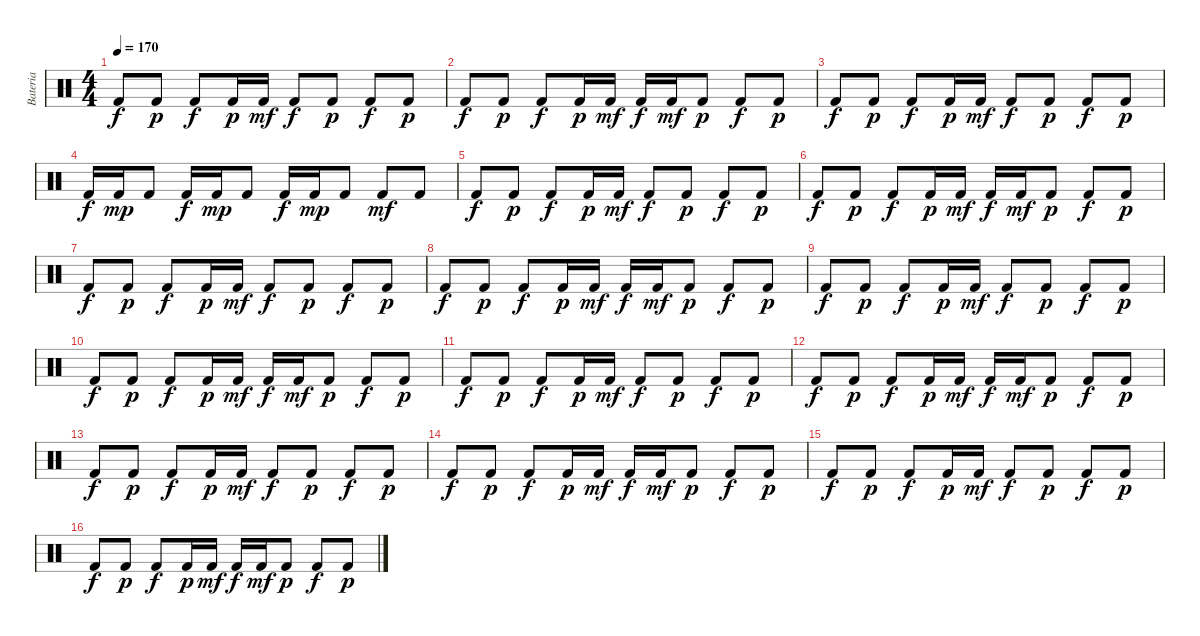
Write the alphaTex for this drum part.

\track ("Bateria" "Bateria") {instrument percussion}
\staff {score}
\articulation defaults
\ts (4 4)
\tempo 170
\clef neutral
\ks c "Kick (hit) 2".8{dy f} "Kick (hit) 2".8{dy p} "Kick (hit) 2".8{dy f} "Kick (hit) 2".16{dy p} "Kick (hit) 2".16{dy mf} "Kick (hit) 2".8{dy f} "Kick (hit) 2".8{dy p} "Kick (hit) 2".8{dy f} "Kick (hit) 2".8{dy p}
|
"Kick (hit) 2".8{dy f} "Kick (hit) 2".8{dy p} "Kick (hit) 2".8{dy f} "Kick (hit) 2".16{dy p} "Kick (hit) 2".16{dy mf} "Kick (hit) 2".16{dy f} "Kick (hit) 2".16{dy mf} "Kick (hit) 2".8{dy p} "Kick (hit) 2".8{dy f} "Kick (hit) 2".8{dy p} |
"Kick (hit) 2".8{dy f} "Kick (hit) 2".8{dy p} "Kick (hit) 2".8{dy f} "Kick (hit) 2".16{dy p} "Kick (hit) 2".16{dy mf} "Kick (hit) 2".8{dy f} "Kick (hit) 2".8{dy p} "Kick (hit) 2".8{dy f} "Kick (hit) 2".8{dy p} |
"Kick (hit) 2".16{dy f} "Kick (hit) 2".16{dy mp} "Kick (hit) 2".8 "Kick (hit) 2".16{dy f} "Kick (hit) 2".16{dy mp} "Kick (hit) 2".8 "Kick (hit) 2".16{dy f} "Kick (hit) 2".16{dy mp} "Kick (hit) 2".8 "Kick (hit) 2".8{dy mf} "Kick (hit) 2".8 |
"Kick (hit) 2".8{dy f} "Kick (hit) 2".8{dy p} "Kick (hit) 2".8{dy f} "Kick (hit) 2".16{dy p} "Kick (hit) 2".16{dy mf} "Kick (hit) 2".8{dy f} "Kick (hit) 2".8{dy p} "Kick (hit) 2".8{dy f} "Kick (hit) 2".8{dy p} |
"Kick (hit) 2".8{dy f} "Kick (hit) 2".8{dy p} "Kick (hit) 2".8{dy f} "Kick (hit) 2".16{dy p} "Kick (hit) 2".16{dy mf} "Kick (hit) 2".16{dy f} "Kick (hit) 2".16{dy mf} "Kick (hit) 2".8{dy p} "Kick (hit) 2".8{dy f} "Kick (hit) 2".8{dy p} |
"Kick (hit) 2".8{dy f} "Kick (hit) 2".8{dy p} "Kick (hit) 2".8{dy f} "Kick (hit) 2".16{dy p} "Kick (hit) 2".16{dy mf} "Kick (hit) 2".8{dy f} "Kick (hit) 2".8{dy p} "Kick (hit) 2".8{dy f} "Kick (hit) 2".8{dy p} |
"Kick (hit) 2".8{dy f} "Kick (hit) 2".8{dy p} "Kick (hit) 2".8{dy f} "Kick (hit) 2".16{dy p} "Kick (hit) 2".16{dy mf} "Kick (hit) 2".16{dy f} "Kick (hit) 2".16{dy mf} "Kick (hit) 2".8{dy p} "Kick (hit) 2".8{dy f} "Kick (hit) 2".8{dy p} |
"Kick (hit) 2".8{dy f} "Kick (hit) 2".8{dy p} "Kick (hit) 2".8{dy f} "Kick (hit) 2".16{dy p} "Kick (hit) 2".16{dy mf} "Kick (hit) 2".8{dy f} "Kick (hit) 2".8{dy p} "Kick (hit) 2".8{dy f} "Kick (hit) 2".8{dy p} |
"Kick (hit) 2".8{dy f} "Kick (hit) 2".8{dy p} "Kick (hit) 2".8{dy f} "Kick (hit) 2".16{dy p} "Kick (hit) 2".16{dy mf} "Kick (hit) 2".16{dy f} "Kick (hit) 2".16{dy mf} "Kick (hit) 2".8{dy p} "Kick (hit) 2".8{dy f} "Kick (hit) 2".8{dy p} |
"Kick (hit) 2".8{dy f} "Kick (hit) 2".8{dy p} "Kick (hit) 2".8{dy f} "Kick (hit) 2".16{dy p} "Kick (hit) 2".16{dy mf} "Kick (hit) 2".8{dy f} "Kick (hit) 2".8{dy p} "Kick (hit) 2".8{dy f} "Kick (hit) 2".8{dy p} |
"Kick (hit) 2".8{dy f} "Kick (hit) 2".8{dy p} "Kick (hit) 2".8{dy f} "Kick (hit) 2".16{dy p} "Kick (hit) 2".16{dy mf} "Kick (hit) 2".16{dy f} "Kick (hit) 2".16{dy mf} "Kick (hit) 2".8{dy p} "Kick (hit) 2".8{dy f} "Kick (hit) 2".8{dy p} |
"Kick (hit) 2".8{dy f} "Kick (hit) 2".8{dy p} "Kick (hit) 2".8{dy f} "Kick (hit) 2".16{dy p} "Kick (hit) 2".16{dy mf} "Kick (hit) 2".8{dy f} "Kick (hit) 2".8{dy p} "Kick (hit) 2".8{dy f} "Kick (hit) 2".8{dy p} |
"Kick (hit) 2".8{dy f} "Kick (hit) 2".8{dy p} "Kick (hit) 2".8{dy f} "Kick (hit) 2".16{dy p} "Kick (hit) 2".16{dy mf} "Kick (hit) 2".16{dy f} "Kick (hit) 2".16{dy mf} "Kick (hit) 2".8{dy p} "Kick (hit) 2".8{dy f} "Kick (hit) 2".8{dy p} |
"Kick (hit) 2".8{dy f} "Kick (hit) 2".8{dy p} "Kick (hit) 2".8{dy f} "Kick (hit) 2".16{dy p} "Kick (hit) 2".16{dy mf} "Kick (hit) 2".8{dy f} "Kick (hit) 2".8{dy p} "Kick (hit) 2".8{dy f} "Kick (hit) 2".8{dy p} |
"Kick (hit) 2".8{dy f} "Kick (hit) 2".8{dy p} "Kick (hit) 2".8{dy f} "Kick (hit) 2".16{dy p} "Kick (hit) 2".16{dy mf} "Kick (hit) 2".16{dy f} "Kick (hit) 2".16{dy mf} "Kick (hit) 2".8{dy p} "Kick (hit) 2".8{dy f} "Kick (hit) 2".8{dy p}
